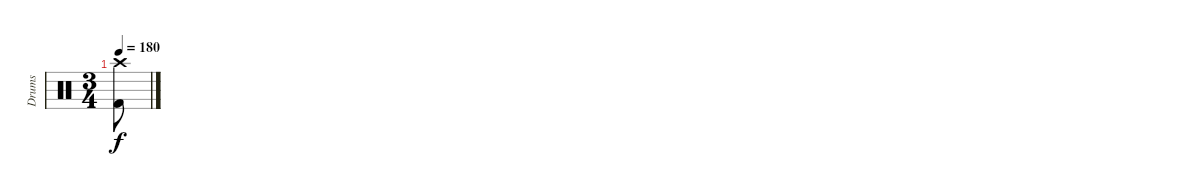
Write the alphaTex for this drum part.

\track ("Drums" "Drums") {instrument percussion}
\staff {score}
\articulation defaults
\ts (3 4)
\tempo 180
\clef neutral
\ks c
("Crash high (hit)" "Kick (hit) 2").8{dy f}
